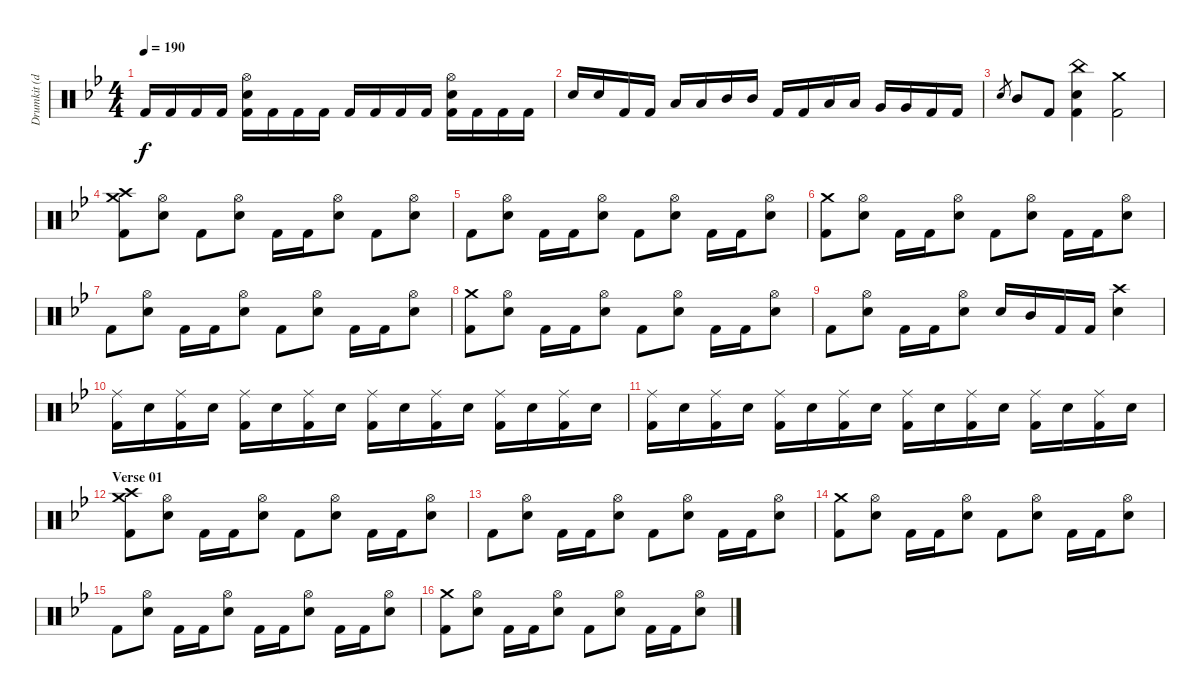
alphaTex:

\track ("Drumkit (don't unmute)" "Drumkit (d") {instrument percussion}
\staff {score}
\articulation defaults
\ts (4 4)
\tempo 190
\clef neutral
\ks bb "Kick (hit) 2".16{dy f} "Kick (hit) 2".16 "Kick (hit) 2".16 "Kick (hit) 2".16
("Kick (hit) 2" "Snare (hit) 2" "Hi-Hat (open)").16 "Kick (hit) 2".16 "Kick (hit) 2".16 "Kick (hit) 2".16 "Kick (hit) 2".16 "Kick (hit) 2".16 "Kick (hit) 2".16 "Kick (hit) 2".16 ("Kick (hit) 2" "Hi-Hat (open)" "Snare (hit) 2").16 "Kick (hit) 2".16 "Kick (hit) 2".16 "Kick (hit) 2".16 |
"Snare (hit) 2".16 "Snare (hit) 2".16 "Kick (hit) 2".16 "Kick (hit) 2".16 "Low Tom (hit)".16 "Low Tom (hit)".16 "Mid Tom (hit)".16 "Mid Tom (hit)".16 "Kick (hit) 2".16 "Kick (hit) 2".16 "Low Tom (hit)".16 "Low Tom (hit)".16 "Very Low Tom (hit)".16 "Very Low Tom (hit)".16 "Kick (hit) 2".16 "Kick (hit) 2".16 |
"Snare (hit)".8{gr} "Mid Tom (hit)".8 "Kick (hit) 2".8 ("Snare (hit) 2" "Kick (hit) 2" "China (hit)").4 ("Kick (hit) 2" "Crash medium (hit)").2 |
("Kick (hit) 2" "Crash high (hit)" "Crash medium (hit)").8 ("Snare (hit) 2" "Hi-Hat (open)").8 "Kick (hit) 2".8 ("Snare (hit) 2" "Hi-Hat (open)").8 "Kick (hit) 2".16 "Kick (hit) 2".16 ("Snare (hit) 2" "Hi-Hat (open)").8 "Kick (hit) 2".8 ("Snare (hit) 2" "Hi-Hat (open)").8 |
"Kick (hit) 2".8 ("Snare (hit) 2" "Hi-Hat (open)").8 "Kick (hit) 2".16 "Kick (hit) 2".16 ("Snare (hit) 2" "Hi-Hat (open)").8 "Kick (hit) 2".8 ("Snare (hit) 2" "Hi-Hat (open)").8 "Kick (hit) 2".16 "Kick (hit) 2".16 ("Snare (hit) 2" "Hi-Hat (open)").8 |
("Kick (hit) 2" "Crash medium (hit)").8 ("Snare (hit) 2" "Hi-Hat (open)").8 "Kick (hit) 2".16 "Kick (hit) 2".16 ("Snare (hit) 2" "Hi-Hat (open)").8 "Kick (hit) 2".8 ("Snare (hit) 2" "Hi-Hat (open)").8 "Kick (hit) 2".16 "Kick (hit) 2".16 ("Snare (hit) 2" "Hi-Hat (open)").8 |
"Kick (hit) 2".8 ("Snare (hit) 2" "Hi-Hat (open)").8 "Kick (hit) 2".16 "Kick (hit) 2".16 ("Snare (hit) 2" "Hi-Hat (open)").8 "Kick (hit) 2".8 ("Snare (hit) 2" "Hi-Hat (open)").8 "Kick (hit) 2".16 "Kick (hit) 2".16 ("Snare (hit) 2" "Hi-Hat (open)").8 |
("Kick (hit) 2" "Crash medium (hit)").8 ("Snare (hit) 2" "Hi-Hat (open)").8 "Kick (hit) 2".16 "Kick (hit) 2".16 ("Snare (hit) 2" "Hi-Hat (open)").8 "Kick (hit) 2".8 ("Snare (hit) 2" "Hi-Hat (open)").8 "Kick (hit) 2".16 "Kick (hit) 2".16 ("Snare (hit) 2" "Hi-Hat (open)").8 |
"Kick (hit) 2".8 ("Snare (hit) 2" "Hi-Hat (open)").8 "Kick (hit) 2".16 "Kick (hit) 2".16 ("Snare (hit) 2" "Hi-Hat (open)").8 "Snare (hit) 2".16 "Mid Tom (hit)".16 "Kick (hit) 2".16 "Kick (hit) 2".16 ("Snare (hit) 2" "Crash high (hit)").4 |
("Kick (hit) 2" "Ride (middle)").16 "Snare (hit) 2".16 ("Kick (hit) 2" "Ride (middle)").16 "Snare (hit) 2".16 ("Kick (hit) 2" "Ride (middle)").16 "Snare (hit) 2".16 ("Kick (hit) 2" "Ride (middle)").16 "Snare (hit) 2".16 ("Kick (hit) 2" "Ride (middle)").16 "Snare (hit) 2".16 ("Kick (hit) 2" "Ride (middle)").16 "Snare (hit) 2".16 ("Kick (hit) 2" "Ride (middle)").16 "Snare (hit) 2".16 ("Kick (hit) 2" "Ride (middle)").16 "Snare (hit) 2".16 |
("Kick (hit) 2" "Ride (middle)").16 "Snare (hit) 2".16 ("Kick (hit) 2" "Ride (middle)").16 "Snare (hit) 2".16 ("Kick (hit) 2" "Ride (middle)").16 "Snare (hit) 2".16 ("Kick (hit) 2" "Ride (middle)").16 "Snare (hit) 2".16 ("Kick (hit) 2" "Ride (middle)").16 "Snare (hit) 2".16 ("Kick (hit) 2" "Ride (middle)").16 "Snare (hit) 2".16 ("Kick (hit) 2" "Ride (middle)").16 "Snare (hit) 2".16 ("Kick (hit) 2" "Ride (middle)").16 "Snare (hit) 2".16 |
\section ("" "Verse 01")
("Kick (hit) 2" "Crash medium (hit)" "Crash high (hit)").8 ("Snare (hit) 2" "Hi-Hat (open)").8 "Kick (hit) 2".16 "Kick (hit) 2".16 ("Snare (hit) 2" "Hi-Hat (open)").8 "Kick (hit) 2".8 ("Snare (hit) 2" "Hi-Hat (open)").8 "Kick (hit) 2".16 "Kick (hit) 2".16 ("Snare (hit) 2" "Hi-Hat (open)").8 |
"Kick (hit) 2".8 ("Snare (hit) 2" "Hi-Hat (open)").8 "Kick (hit) 2".16 "Kick (hit) 2".16 ("Snare (hit) 2" "Hi-Hat (open)").8 "Kick (hit) 2".8 ("Snare (hit) 2" "Hi-Hat (open)").8 "Kick (hit) 2".16 "Kick (hit) 2".16 ("Snare (hit) 2" "Hi-Hat (open)").8 |
("Kick (hit) 2" "Crash medium (hit)").8 ("Snare (hit) 2" "Hi-Hat (open)").8 "Kick (hit) 2".16 "Kick (hit) 2".16 ("Snare (hit) 2" "Hi-Hat (open)").8 "Kick (hit) 2".8 ("Snare (hit) 2" "Hi-Hat (open)").8 "Kick (hit) 2".16 "Kick (hit) 2".16 ("Snare (hit) 2" "Hi-Hat (open)").8 |
"Kick (hit) 2".8 ("Snare (hit) 2" "Hi-Hat (open)").8 "Kick (hit) 2".16 "Kick (hit) 2".16 ("Snare (hit) 2" "Hi-Hat (open)").8 "Kick (hit) 2".16 "Kick (hit) 2".16 ("Snare (hit) 2" "Hi-Hat (open)").8 "Kick (hit) 2".16 "Kick (hit) 2".16 ("Snare (hit) 2" "Hi-Hat (open)").8 |
("Kick (hit) 2" "Crash medium (hit)").8 ("Snare (hit) 2" "Hi-Hat (open)").8 "Kick (hit) 2".16 "Kick (hit) 2".16 ("Snare (hit) 2" "Hi-Hat (open)").8 "Kick (hit) 2".8 ("Snare (hit) 2" "Hi-Hat (open)").8 "Kick (hit) 2".16 "Kick (hit) 2".16 ("Snare (hit) 2" "Hi-Hat (open)").8
